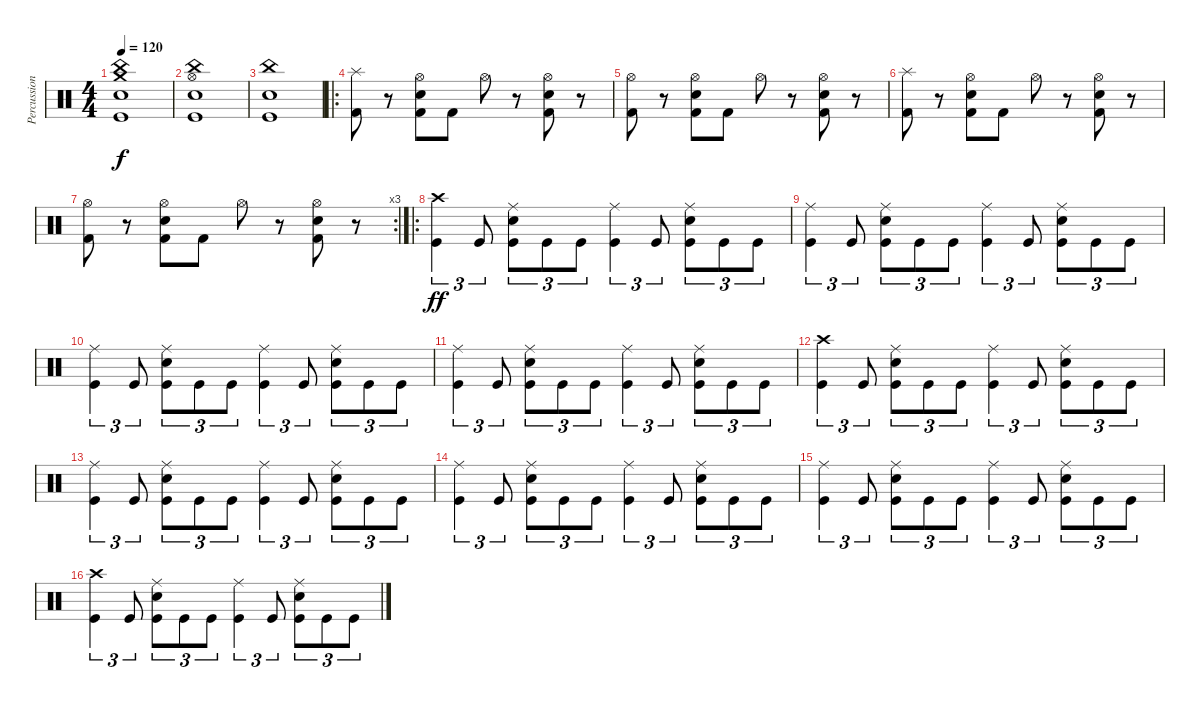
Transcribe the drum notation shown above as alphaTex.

\track ("Percussion" "Percussion") {instrument percussion}
\staff {score}
\articulation defaults
\ts (4 4)
\tempo 120
\clef neutral
\ks c
("Kick (hit)" "Electric Snare (hit)" "China (hit)" "Crash medium (hit)").1{dy f} |
("Kick (hit)" "Electric Snare (hit)" "Hi-Hat (open)" "China (hit)").1 |
("Kick (hit)" "Electric Snare (hit)" "China (hit)").1 |
\ro
("Kick (hit) 2" "Splash (hit)").8 r.8 ("Kick (hit) 2" "Hi-Hat (open)" "Snare (hit) 2").8 "Kick (hit) 2".8 "Hi-Hat (open)".8 r.8 ("Kick (hit) 2" "Hi-Hat (open)" "Snare (hit) 2").8 r.8 |
("Kick (hit) 2" "Hi-Hat (open)").8 r.8 ("Kick (hit) 2" "Hi-Hat (open)" "Snare (hit) 2").8 "Kick (hit) 2".8 "Hi-Hat (open)".8 r.8 ("Kick (hit) 2" "Hi-Hat (open)" "Snare (hit) 2").8 r.8 |
("Kick (hit) 2" "Splash (hit)").8 r.8 ("Kick (hit) 2" "Hi-Hat (open)" "Snare (hit) 2").8 "Kick (hit) 2".8 "Hi-Hat (open)".8 r.8 ("Kick (hit) 2" "Hi-Hat (open)" "Snare (hit) 2").8 r.8 |
\rc 3
("Kick (hit) 2" "Hi-Hat (open)").8 r.8 ("Kick (hit) 2" "Hi-Hat (open)" "Snare (hit) 2").8 "Kick (hit) 2".8 "Hi-Hat (open)".8 r.8 ("Kick (hit) 2" "Hi-Hat (open)" "Snare (hit) 2").8 r.8 |
\ro
("Crash high (hit)" "Kick (hit)").4{tu (3 2) dy ff} "Kick (hit)".8{tu (3 2)} ("Ride (middle)" "Electric Snare (hit)" "Kick (hit)").8{tu (3 2)} "Kick (hit)".8{tu (3 2)} "Kick (hit)".8{tu (3 2)} ("Ride (middle)" "Kick (hit)").4{tu (3 2)} "Kick (hit)".8{tu (3 2)} ("Ride (middle)" "Electric Snare (hit)" "Kick (hit)").8{tu (3 2)} "Kick (hit)".8{tu (3 2)} "Kick (hit)".8{tu (3 2)} |
("Ride (middle)" "Kick (hit)").4{tu (3 2)} "Kick (hit)".8{tu (3 2)} ("Ride (middle)" "Electric Snare (hit)" "Kick (hit)").8{tu (3 2)} "Kick (hit)".8{tu (3 2)} "Kick (hit)".8{tu (3 2)} ("Ride (middle)" "Kick (hit)").4{tu (3 2)} "Kick (hit)".8{tu (3 2)} ("Ride (middle)" "Electric Snare (hit)" "Kick (hit)").8{tu (3 2)} "Kick (hit)".8{tu (3 2)} "Kick (hit)".8{tu (3 2)} |
("Ride (middle)" "Kick (hit)").4{tu (3 2)} "Kick (hit)".8{tu (3 2)} ("Ride (middle)" "Electric Snare (hit)" "Kick (hit)").8{tu (3 2)} "Kick (hit)".8{tu (3 2)} "Kick (hit)".8{tu (3 2)} ("Ride (middle)" "Kick (hit)").4{tu (3 2)} "Kick (hit)".8{tu (3 2)} ("Ride (middle)" "Electric Snare (hit)" "Kick (hit)").8{tu (3 2)} "Kick (hit)".8{tu (3 2)} "Kick (hit)".8{tu (3 2)} |
("Ride (middle)" "Kick (hit)").4{tu (3 2)} "Kick (hit)".8{tu (3 2)} ("Ride (middle)" "Electric Snare (hit)" "Kick (hit)").8{tu (3 2)} "Kick (hit)".8{tu (3 2)} "Kick (hit)".8{tu (3 2)} ("Ride (middle)" "Kick (hit)").4{tu (3 2)} "Kick (hit)".8{tu (3 2)} ("Ride (middle)" "Electric Snare (hit)" "Kick (hit)").8{tu (3 2)} "Kick (hit)".8{tu (3 2)} "Kick (hit)".8{tu (3 2)} |
("Crash high (hit)" "Kick (hit)").4{tu (3 2)} "Kick (hit)".8{tu (3 2)} ("Ride (middle)" "Electric Snare (hit)" "Kick (hit)").8{tu (3 2)} "Kick (hit)".8{tu (3 2)} "Kick (hit)".8{tu (3 2)} ("Ride (middle)" "Kick (hit)").4{tu (3 2)} "Kick (hit)".8{tu (3 2)} ("Ride (middle)" "Electric Snare (hit)" "Kick (hit)").8{tu (3 2)} "Kick (hit)".8{tu (3 2)} "Kick (hit)".8{tu (3 2)} |
("Ride (middle)" "Kick (hit)").4{tu (3 2)} "Kick (hit)".8{tu (3 2)} ("Ride (middle)" "Electric Snare (hit)" "Kick (hit)").8{tu (3 2)} "Kick (hit)".8{tu (3 2)} "Kick (hit)".8{tu (3 2)} ("Ride (middle)" "Kick (hit)").4{tu (3 2)} "Kick (hit)".8{tu (3 2)} ("Ride (middle)" "Electric Snare (hit)" "Kick (hit)").8{tu (3 2)} "Kick (hit)".8{tu (3 2)} "Kick (hit)".8{tu (3 2)} |
("Ride (middle)" "Kick (hit)").4{tu (3 2)} "Kick (hit)".8{tu (3 2)} ("Ride (middle)" "Electric Snare (hit)" "Kick (hit)").8{tu (3 2)} "Kick (hit)".8{tu (3 2)} "Kick (hit)".8{tu (3 2)} ("Ride (middle)" "Kick (hit)").4{tu (3 2)} "Kick (hit)".8{tu (3 2)} ("Ride (middle)" "Electric Snare (hit)" "Kick (hit)").8{tu (3 2)} "Kick (hit)".8{tu (3 2)} "Kick (hit)".8{tu (3 2)} |
("Ride (middle)" "Kick (hit)").4{tu (3 2)} "Kick (hit)".8{tu (3 2)} ("Ride (middle)" "Electric Snare (hit)" "Kick (hit)").8{tu (3 2)} "Kick (hit)".8{tu (3 2)} "Kick (hit)".8{tu (3 2)} ("Ride (middle)" "Kick (hit)").4{tu (3 2)} "Kick (hit)".8{tu (3 2)} ("Ride (middle)" "Electric Snare (hit)" "Kick (hit)").8{tu (3 2)} "Kick (hit)".8{tu (3 2)} "Kick (hit)".8{tu (3 2)} |
("Crash high (hit)" "Kick (hit)").4{tu (3 2)} "Kick (hit)".8{tu (3 2)} ("Ride (middle)" "Electric Snare (hit)" "Kick (hit)").8{tu (3 2)} "Kick (hit)".8{tu (3 2)} "Kick (hit)".8{tu (3 2)} ("Ride (middle)" "Kick (hit)").4{tu (3 2)} "Kick (hit)".8{tu (3 2)} ("Ride (middle)" "Electric Snare (hit)" "Kick (hit)").8{tu (3 2)} "Kick (hit)".8{tu (3 2)} "Kick (hit)".8{tu (3 2)}
